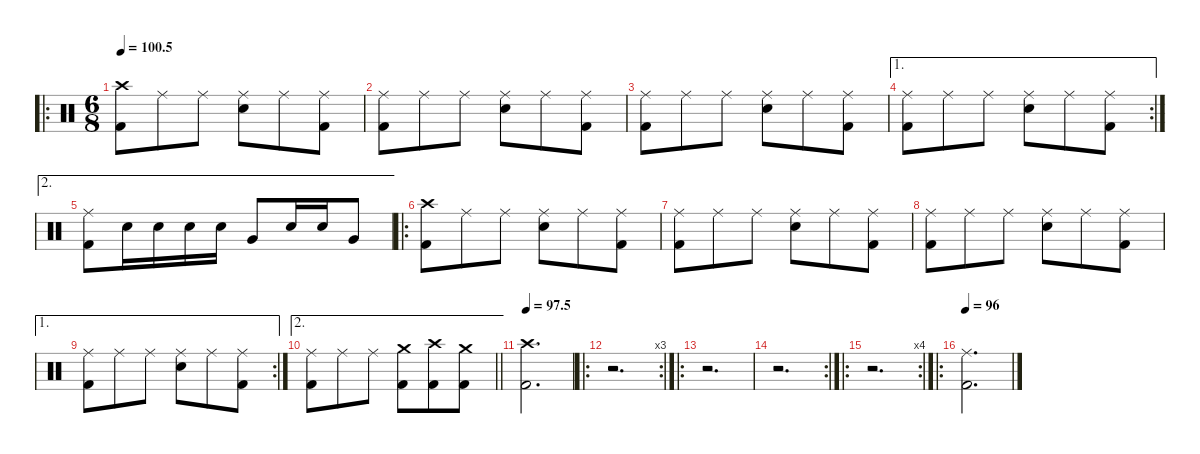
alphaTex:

\defaultSystemsLayout 4
\hideDynamics
\bracketExtendMode nobrackets
\singleTrackTrackNamePolicy hidden
\multiTrackTrackNamePolicy hidden
\firstSystemTrackNameMode fullname
\firstSystemTrackNameOrientation horizontal
\otherSystemsTrackNameOrientation horizontal
\track ("Drums" "drm.") {instrument percussion}
\staff {score}
\articulation defaults
\ro
\ts (6 8)
\tempo
100.5
\accidentals auto
\clef neutral
\ottava regular
\simile none
\ks c
("Crash high (hit)" "Kick (hit) 2").8{dy f beam Down} "Ride (middle)".8{beam Down} "Ride (middle)".8{beam Down} ("Ride (middle)" "Snare (hit) 2").8{beam Down} "Ride (middle)".8{beam Down} ("Ride (middle)" "Kick (hit) 2").8{beam Down} |
("Ride (middle)" "Kick (hit) 2").8{beam Down} "Ride (middle)".8{beam Down} "Ride (middle)".8{beam Down} ("Ride (middle)" "Snare (hit) 2").8{beam Down} "Ride (middle)".8{beam Down} ("Ride (middle)" "Kick (hit) 2").8{beam Down} |
("Ride (middle)" "Kick (hit) 2").8{beam Down} "Ride (middle)".8{beam Down} "Ride (middle)".8{beam Down} ("Ride (middle)" "Snare (hit) 2").8{beam Down} "Ride (middle)".8{beam Down} ("Ride (middle)" "Kick (hit) 2").8{beam Down} |
\ae 1
\rc 2
("Ride (middle)" "Kick (hit) 2").8{beam Down} "Ride (middle)".8{beam Down} "Ride (middle)".8{beam Down} ("Ride (middle)" "Snare (hit) 2").8{beam Down} "Ride (middle)".8{beam Down} ("Ride (middle)" "Kick (hit) 2").8{beam Down} |
\ae 2
("Ride (middle)" "Kick (hit) 2").8{beam Down} "Snare (hit) 2".16{dy mf beam Down} "Snare (hit) 2".16{dy f beam Down} "Snare (hit) 2".16{beam Down} "Snare (hit) 2".16{dy ff beam Down} "Very Low Tom (hit)".8{beam Up} "Snare (hit) 2".16{dy f beam Up} "Snare (hit) 2".16{dy ff beam Up} "Very Low Tom (hit)".8{beam Up} |
\ro
("Crash high (hit)" "Kick (hit) 2").8{dy f beam Down} "Ride (middle)".8{beam Down} "Ride (middle)".8{beam Down} ("Ride (middle)" "Snare (hit) 2").8{beam Down} "Ride (middle)".8{beam Down} ("Ride (middle)" "Kick (hit) 2").8{beam Down} |
("Ride (middle)" "Kick (hit) 2").8{beam Down} "Ride (middle)".8{beam Down} "Ride (middle)".8{beam Down} ("Ride (middle)" "Snare (hit) 2").8{beam Down} "Ride (middle)".8{beam Down} ("Ride (middle)" "Kick (hit) 2").8{beam Down} |
("Ride (middle)" "Kick (hit) 2").8{beam Down} "Ride (middle)".8{beam Down} "Ride (middle)".8{beam Down} ("Ride (middle)" "Snare (hit) 2").8{beam Down} "Ride (middle)".8{beam Down} ("Ride (middle)" "Kick (hit) 2").8{beam Down} |
\ae 1
\rc 2
("Ride (middle)" "Kick (hit) 2").8{beam Down} "Ride (middle)".8{beam Down} "Ride (middle)".8{beam Down} ("Ride (middle)" "Snare (hit) 2").8{beam Down} "Ride (middle)".8{beam Down} ("Ride (middle)" "Kick (hit) 2").8{beam Down} |
\ae 2
\barLineRight lightlight
("Ride (middle)" "Kick (hit) 2").8{beam Down} "Ride (middle)".8{beam Down} "Ride (middle)".8{beam Down} ("Crash medium (hit)" "Kick (hit) 2").8{beam Down} ("Crash high (hit)" "Kick (hit) 2").8{beam Down} ("Crash medium (hit)" "Kick (hit) 2").8{beam Down} |
\tempo
97.5 ("Crash high (hit)" "Kick (hit) 2").2{d beam Down} |
\ro
\rc 3
r.2{d beam Down} |
\ro
r.2{d beam Down} |
\rc 2
r.2{d beam Down} |
\ro
\rc 4
r.2{d beam Down} |
\ro
\tempo 96
("Ride (middle)" "Kick (hit) 2").2{d dy ff beam Down}
